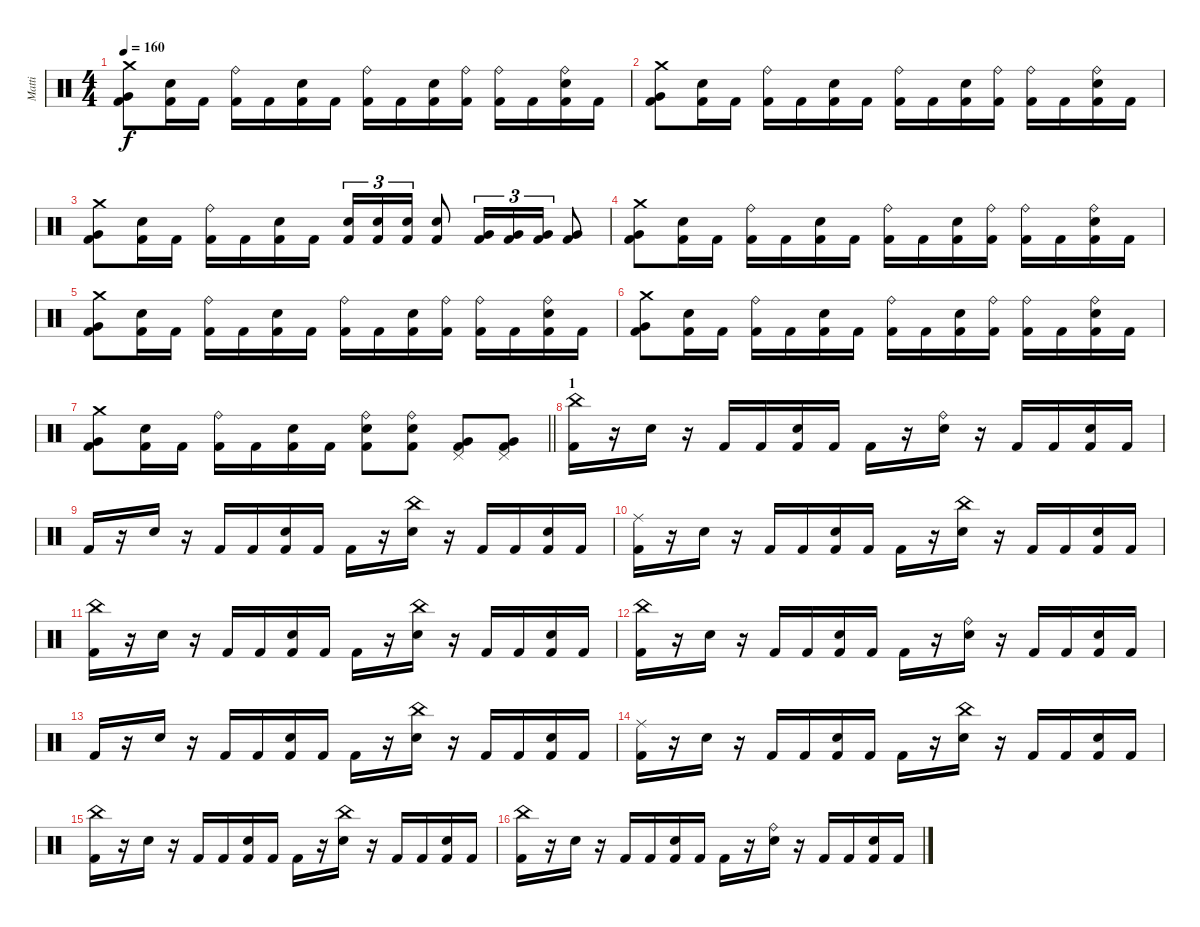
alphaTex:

\track ("Matti" "Matti") {instrument percussion}
\staff {score}
\articulation defaults
\ts (4 4)
\tempo 160
\clef neutral
\ks c
("Crash medium (hit)" "Very Low Tom (hit)" "Kick (hit) 2").8{dy f} ("Electric Snare (hit)" "Kick (hit) 2").16 "Kick (hit) 2".16 ("Ride (bell)" "Kick (hit) 2").16 "Kick (hit) 2".16 ("Electric Snare (hit)" "Kick (hit) 2").16 "Kick (hit) 2".16 ("Ride (bell)" "Kick (hit) 2").16 "Kick (hit) 2".16 ("Electric Snare (hit)" "Kick (hit) 2").16 ("Ride (bell)" "Kick (hit) 2").16 ("Ride (bell)" "Kick (hit) 2").16 "Kick (hit) 2".16 ("Ride (bell)" "Electric Snare (hit)" "Kick (hit) 2").16 "Kick (hit) 2".16 |
("Crash medium (hit)" "Very Low Tom (hit)" "Kick (hit) 2").8 ("Electric Snare (hit)" "Kick (hit) 2").16 "Kick (hit) 2".16 ("Ride (bell)" "Kick (hit) 2").16 "Kick (hit) 2".16 ("Electric Snare (hit)" "Kick (hit) 2").16 "Kick (hit) 2".16 ("Ride (bell)" "Kick (hit) 2").16 "Kick (hit) 2".16 ("Electric Snare (hit)" "Kick (hit) 2").16 ("Ride (bell)" "Kick (hit) 2").16 ("Ride (bell)" "Kick (hit) 2").16 "Kick (hit) 2".16 ("Ride (bell)" "Electric Snare (hit)" "Kick (hit) 2").16 "Kick (hit) 2".16 |
("Crash medium (hit)" "Very Low Tom (hit)" "Kick (hit) 2").8 ("Electric Snare (hit)" "Kick (hit) 2").16 "Kick (hit) 2".16 ("Ride (bell)" "Kick (hit) 2").16 "Kick (hit) 2".16 ("Electric Snare (hit)" "Kick (hit) 2").16 "Kick (hit) 2".16 ("Electric Snare (hit)" "Kick (hit) 2").16{tu (3 2)} ("Electric Snare (hit)" "Kick (hit) 2").16{tu (3 2)} ("Electric Snare (hit)" "Kick (hit) 2").16{tu (3 2)} ("Electric Snare (hit)" "Kick (hit) 2").8 ("Very Low Tom (hit)" "Kick (hit) 2").16{tu (3 2)} ("Very Low Tom (hit)" "Kick (hit) 2").16{tu (3 2)} ("Very Low Tom (hit)" "Kick (hit) 2").16{tu (3 2)} ("Very Low Tom (hit)" "Kick (hit) 2").8 |
("Crash medium (hit)" "Very Low Tom (hit)" "Kick (hit) 2").8 ("Electric Snare (hit)" "Kick (hit) 2").16 "Kick (hit) 2".16 ("Ride (bell)" "Kick (hit) 2").16 "Kick (hit) 2".16 ("Electric Snare (hit)" "Kick (hit) 2").16 "Kick (hit) 2".16 ("Ride (bell)" "Kick (hit) 2").16 "Kick (hit) 2".16 ("Electric Snare (hit)" "Kick (hit) 2").16 ("Ride (bell)" "Kick (hit) 2").16 ("Ride (bell)" "Kick (hit) 2").16 "Kick (hit) 2".16 ("Ride (bell)" "Electric Snare (hit)" "Kick (hit) 2").16 "Kick (hit) 2".16 |
("Crash medium (hit)" "Very Low Tom (hit)" "Kick (hit) 2").8 ("Electric Snare (hit)" "Kick (hit) 2").16 "Kick (hit) 2".16 ("Ride (bell)" "Kick (hit) 2").16 "Kick (hit) 2".16 ("Electric Snare (hit)" "Kick (hit) 2").16 "Kick (hit) 2".16 ("Ride (bell)" "Kick (hit) 2").16 "Kick (hit) 2".16 ("Electric Snare (hit)" "Kick (hit) 2").16 ("Ride (bell)" "Kick (hit) 2").16 ("Ride (bell)" "Kick (hit) 2").16 "Kick (hit) 2".16 ("Ride (bell)" "Electric Snare (hit)" "Kick (hit) 2").16 "Kick (hit) 2".16 |
("Crash medium (hit)" "Very Low Tom (hit)" "Kick (hit) 2").8 ("Electric Snare (hit)" "Kick (hit) 2").16 "Kick (hit) 2".16 ("Ride (bell)" "Kick (hit) 2").16 "Kick (hit) 2".16 ("Electric Snare (hit)" "Kick (hit) 2").16 "Kick (hit) 2".16 ("Ride (bell)" "Kick (hit) 2").16 "Kick (hit) 2".16 ("Electric Snare (hit)" "Kick (hit) 2").16 ("Ride (bell)" "Kick (hit) 2").16 ("Ride (bell)" "Kick (hit) 2").16 "Kick (hit) 2".16 ("Ride (bell)" "Electric Snare (hit)" "Kick (hit) 2").16 "Kick (hit) 2".16 |
\barLineRight lightlight
("Crash medium (hit)" "Very Low Tom (hit)" "Kick (hit) 2").8 ("Electric Snare (hit)" "Kick (hit) 2").16 "Kick (hit) 2".16 ("Ride (bell)" "Kick (hit) 2").16 "Kick (hit) 2".16 ("Electric Snare (hit)" "Kick (hit) 2").16 "Kick (hit) 2".16 ("Ride (bell)" "Electric Snare (hit)" "Kick (hit) 2").8 ("Ride (bell)" "Electric Snare (hit)" "Kick (hit) 2").8 ("Pedal Hi-Hat (hit)" "Very Low Tom (hit)" "Kick (hit) 2").8 ("Pedal Hi-Hat (hit)" "Very Low Tom (hit)" "Kick (hit) 2").8 |
\section ("" "1")
("China (hit)" "Kick (hit) 2").16 r.16 "Electric Snare (hit)".16 r.16 "Kick (hit) 2".16 "Kick (hit) 2".16 ("Electric Snare (hit)" "Kick (hit) 2").16 "Kick (hit) 2".16 "Kick (hit) 2".16 r.16 ("Ride (bell)" "Electric Snare (hit)").16 r.16 "Kick (hit) 2".16 "Kick (hit) 2".16 ("Electric Snare (hit)" "Kick (hit) 2").16 "Kick (hit) 2".16 |
"Kick (hit) 2".16 r.16 "Electric Snare (hit)".16 r.16 "Kick (hit) 2".16 "Kick (hit) 2".16 ("Electric Snare (hit)" "Kick (hit) 2").16 "Kick (hit) 2".16 "Kick (hit) 2".16 r.16 ("China (hit)" "Electric Snare (hit)").16 r.16 "Kick (hit) 2".16 "Kick (hit) 2".16 ("Electric Snare (hit)" "Kick (hit) 2").16 "Kick (hit) 2".16 |
("Ride (middle)" "Kick (hit) 2").16 r.16 "Electric Snare (hit)".16 r.16 "Kick (hit) 2".16 "Kick (hit) 2".16 ("Electric Snare (hit)" "Kick (hit) 2").16 "Kick (hit) 2".16 "Kick (hit) 2".16 r.16 ("China (hit)" "Electric Snare (hit)").16 r.16 "Kick (hit) 2".16 "Kick (hit) 2".16 ("Electric Snare (hit)" "Kick (hit) 2").16 "Kick (hit) 2".16 |
("China (hit)" "Kick (hit) 2").16 r.16 "Electric Snare (hit)".16 r.16 "Kick (hit) 2".16 "Kick (hit) 2".16 ("Electric Snare (hit)" "Kick (hit) 2").16 "Kick (hit) 2".16 "Kick (hit) 2".16 r.16 ("China (hit)" "Electric Snare (hit)").16 r.16 "Kick (hit) 2".16 "Kick (hit) 2".16 ("Electric Snare (hit)" "Kick (hit) 2").16 "Kick (hit) 2".16 |
("China (hit)" "Kick (hit) 2").16 r.16 "Electric Snare (hit)".16 r.16 "Kick (hit) 2".16 "Kick (hit) 2".16 ("Electric Snare (hit)" "Kick (hit) 2").16 "Kick (hit) 2".16 "Kick (hit) 2".16 r.16 ("Ride (bell)" "Electric Snare (hit)").16 r.16 "Kick (hit) 2".16 "Kick (hit) 2".16 ("Electric Snare (hit)" "Kick (hit) 2").16 "Kick (hit) 2".16 |
"Kick (hit) 2".16 r.16 "Electric Snare (hit)".16 r.16 "Kick (hit) 2".16 "Kick (hit) 2".16 ("Electric Snare (hit)" "Kick (hit) 2").16 "Kick (hit) 2".16 "Kick (hit) 2".16 r.16 ("China (hit)" "Electric Snare (hit)").16 r.16 "Kick (hit) 2".16 "Kick (hit) 2".16 ("Electric Snare (hit)" "Kick (hit) 2").16 "Kick (hit) 2".16 |
("Ride (middle)" "Kick (hit) 2").16 r.16 "Electric Snare (hit)".16 r.16 "Kick (hit) 2".16 "Kick (hit) 2".16 ("Electric Snare (hit)" "Kick (hit) 2").16 "Kick (hit) 2".16 "Kick (hit) 2".16 r.16 ("China (hit)" "Electric Snare (hit)").16 r.16 "Kick (hit) 2".16 "Kick (hit) 2".16 ("Electric Snare (hit)" "Kick (hit) 2").16 "Kick (hit) 2".16 |
("China (hit)" "Kick (hit) 2").16 r.16 "Electric Snare (hit)".16 r.16 "Kick (hit) 2".16 "Kick (hit) 2".16 ("Electric Snare (hit)" "Kick (hit) 2").16 "Kick (hit) 2".16 "Kick (hit) 2".16 r.16 ("China (hit)" "Electric Snare (hit)").16 r.16 "Kick (hit) 2".16 "Kick (hit) 2".16 ("Electric Snare (hit)" "Kick (hit) 2").16 "Kick (hit) 2".16 |
("China (hit)" "Kick (hit) 2").16 r.16 "Electric Snare (hit)".16 r.16 "Kick (hit) 2".16 "Kick (hit) 2".16 ("Electric Snare (hit)" "Kick (hit) 2").16 "Kick (hit) 2".16 "Kick (hit) 2".16 r.16 ("Ride (bell)" "Electric Snare (hit)").16 r.16 "Kick (hit) 2".16 "Kick (hit) 2".16 ("Electric Snare (hit)" "Kick (hit) 2").16 "Kick (hit) 2".16
